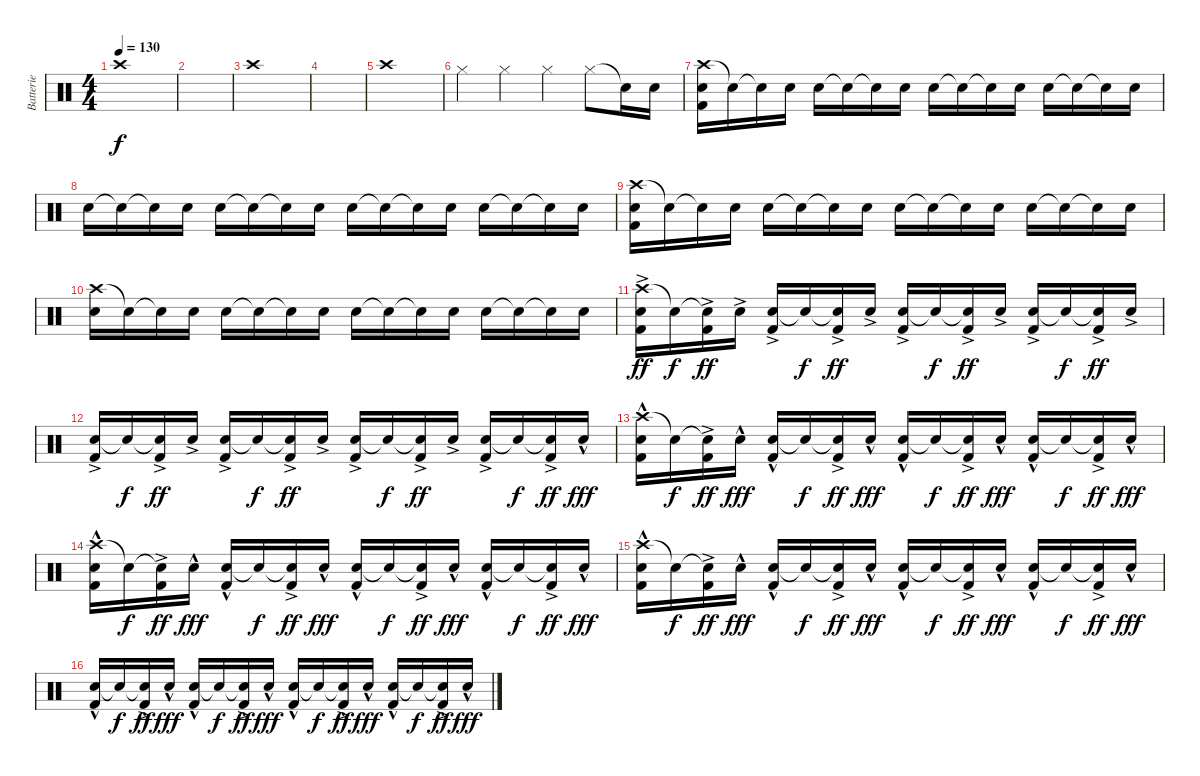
\track ("Batterie" "Batterie") {instrument percussion}
\staff {score}
\articulation defaults
\ts (4 4)
\tempo 130
\clef neutral
\ks c "Crash high (hit)".1{dy f}
|
|
"Crash high (hit)".1 |
|
"Crash high (hit)".1 |
"Hi-Hat (closed)".4 "Hi-Hat (closed)".4 "Hi-Hat (closed)".4 "Hi-Hat (closed)".8 "Snare (hit)"{t}.16 "Electric Snare (hit)".16 |
("Crash high (hit)" "Electric Snare (hit)" "Kick (hit) 2").16 "Snare (hit)"{t}.16 "Electric Snare (hit)"{t}.16 "Electric Snare (hit)".16 "Electric Snare (hit)".16 "Electric Snare (hit)"{t}.16 "Snare (hit)"{t}.16 "Electric Snare (hit)".16 "Electric Snare (hit)".16 "Snare (hit)"{t}.16 "Electric Snare (hit)"{t}.16 "Electric Snare (hit)".16 "Electric Snare (hit)".16 "Electric Snare (hit)"{t}.16 "Snare (hit)"{t}.16 "Electric Snare (hit)".16 |
"Electric Snare (hit)".16 "Snare (hit)"{t}.16 "Electric Snare (hit)"{t}.16 "Electric Snare (hit)".16 "Electric Snare (hit)".16 "Electric Snare (hit)"{t}.16 "Snare (hit)"{t}.16 "Electric Snare (hit)".16 "Electric Snare (hit)".16 "Snare (hit)"{t}.16 "Electric Snare (hit)"{t}.16 "Electric Snare (hit)".16 "Electric Snare (hit)".16 "Electric Snare (hit)"{t}.16 "Snare (hit)"{t}.16 "Electric Snare (hit)".16 |
("Crash high (hit)" "Electric Snare (hit)" "Kick (hit) 2").16 "Snare (hit)"{t}.16 "Electric Snare (hit)"{t}.16 "Electric Snare (hit)".16 "Electric Snare (hit)".16 "Electric Snare (hit)"{t}.16 "Snare (hit)"{t}.16 "Electric Snare (hit)".16 "Electric Snare (hit)".16 "Snare (hit)"{t}.16 "Electric Snare (hit)"{t}.16 "Electric Snare (hit)".16 "Electric Snare (hit)".16 "Electric Snare (hit)"{t}.16 "Snare (hit)"{t}.16 "Electric Snare (hit)".16 |
("Crash high (hit)" "Electric Snare (hit)").16 "Snare (hit)"{t}.16 "Electric Snare (hit)"{t}.16 "Electric Snare (hit)".16 "Electric Snare (hit)".16 "Electric Snare (hit)"{t}.16 "Snare (hit)"{t}.16 "Electric Snare (hit)".16 "Electric Snare (hit)".16 "Snare (hit)"{t}.16 "Electric Snare (hit)"{t}.16 "Electric Snare (hit)".16 "Electric Snare (hit)".16 "Electric Snare (hit)"{t}.16 "Snare (hit)"{t}.16 "Electric Snare (hit)".16 |
("Crash high (hit)"{ac} "Electric Snare (hit)"{ac} "Kick (hit) 2"{ac}).16{dy ff} "Snare (hit)"{t}.16{dy f} ("Electric Snare (hit)"{t} "Kick (hit) 2"{ac}).16{dy ff} "Electric Snare (hit)"{ac}.16 ("Electric Snare (hit)"{ac} "Kick (hit) 2"{ac}).16 "Electric Snare (hit)"{t}.16{dy f} ("Snare (hit)"{t} "Kick (hit) 2"{ac}).16{dy ff} "Electric Snare (hit)"{ac}.16 ("Electric Snare (hit)"{ac} "Kick (hit) 2"{ac}).16 "Snare (hit)"{t}.16{dy f} ("Electric Snare (hit)"{t} "Kick (hit) 2"{ac}).16{dy ff} "Electric Snare (hit)"{ac}.16 ("Electric Snare (hit)"{ac} "Kick (hit) 2"{ac}).16 "Electric Snare (hit)"{t}.16{dy f} ("Snare (hit)"{t} "Kick (hit) 2"{ac}).16{dy ff} "Electric Snare (hit)"{ac}.16 |
("Electric Snare (hit)"{ac} "Kick (hit) 2"{ac}).16 "Snare (hit)"{t}.16{dy f} ("Electric Snare (hit)"{t} "Kick (hit) 2"{ac}).16{dy ff} "Electric Snare (hit)"{ac}.16 ("Electric Snare (hit)"{ac} "Kick (hit) 2"{ac}).16 "Electric Snare (hit)"{t}.16{dy f} ("Snare (hit)"{t} "Kick (hit) 2"{ac}).16{dy ff} "Electric Snare (hit)"{ac}.16 ("Electric Snare (hit)"{ac} "Kick (hit) 2"{ac}).16 "Snare (hit)"{t}.16{dy f} ("Electric Snare (hit)"{t} "Kick (hit) 2"{ac}).16{dy ff} "Electric Snare (hit)"{ac}.16 ("Electric Snare (hit)"{ac} "Kick (hit) 2"{ac}).16 "Electric Snare (hit)"{t}.16{dy f} ("Snare (hit)"{t} "Kick (hit) 2"{ac}).16{dy ff} "Electric Snare (hit)"{hac}.16{dy fff} |
("Crash high (hit)"{hac} "Electric Snare (hit)"{hac} "Kick (hit) 2"{hac}).16 "Snare (hit)"{t}.16{dy f} ("Electric Snare (hit)"{t} "Kick (hit) 2"{ac}).16{dy ff} "Electric Snare (hit)"{hac}.16{dy fff} ("Electric Snare (hit)"{hac} "Kick (hit) 2"{hac}).16 "Electric Snare (hit)"{t}.16{dy f} ("Snare (hit)"{t} "Kick (hit) 2"{ac}).16{dy ff} "Electric Snare (hit)"{hac}.16{dy fff} ("Electric Snare (hit)"{hac} "Kick (hit) 2"{hac}).16 "Snare (hit)"{t}.16{dy f} ("Electric Snare (hit)"{t} "Kick (hit) 2"{ac}).16{dy ff} "Electric Snare (hit)"{hac}.16{dy fff} ("Electric Snare (hit)"{hac} "Kick (hit) 2"{hac}).16 "Electric Snare (hit)"{t}.16{dy f} ("Snare (hit)"{t} "Kick (hit) 2"{ac}).16{dy ff} "Electric Snare (hit)"{hac}.16{dy fff} |
("Crash high (hit)"{hac} "Electric Snare (hit)"{hac} "Kick (hit) 2"{hac}).16 "Snare (hit)"{t}.16{dy f} ("Electric Snare (hit)"{t} "Kick (hit) 2"{ac}).16{dy ff} "Electric Snare (hit)"{hac}.16{dy fff} ("Electric Snare (hit)"{hac} "Kick (hit) 2"{hac}).16 "Electric Snare (hit)"{t}.16{dy f} ("Snare (hit)"{t} "Kick (hit) 2"{ac}).16{dy ff} "Electric Snare (hit)"{hac}.16{dy fff} ("Electric Snare (hit)"{hac} "Kick (hit) 2"{hac}).16 "Snare (hit)"{t}.16{dy f} ("Electric Snare (hit)"{t} "Kick (hit) 2"{ac}).16{dy ff} "Electric Snare (hit)"{hac}.16{dy fff} ("Electric Snare (hit)"{hac} "Kick (hit) 2"{hac}).16 "Electric Snare (hit)"{t}.16{dy f} ("Snare (hit)"{t} "Kick (hit) 2"{ac}).16{dy ff} "Electric Snare (hit)"{hac}.16{dy fff} |
("Crash high (hit)"{hac} "Electric Snare (hit)"{hac} "Kick (hit) 2"{hac}).16 "Snare (hit)"{t}.16{dy f} ("Electric Snare (hit)"{t} "Kick (hit) 2"{ac}).16{dy ff} "Electric Snare (hit)"{hac}.16{dy fff} ("Electric Snare (hit)"{hac} "Kick (hit) 2"{hac}).16 "Electric Snare (hit)"{t}.16{dy f} ("Snare (hit)"{t} "Kick (hit) 2"{ac}).16{dy ff} "Electric Snare (hit)"{hac}.16{dy fff} ("Electric Snare (hit)"{hac} "Kick (hit) 2"{hac}).16 "Snare (hit)"{t}.16{dy f} ("Electric Snare (hit)"{t} "Kick (hit) 2"{ac}).16{dy ff} "Electric Snare (hit)"{hac}.16{dy fff} ("Electric Snare (hit)"{hac} "Kick (hit) 2"{hac}).16 "Electric Snare (hit)"{t}.16{dy f} ("Snare (hit)"{t} "Kick (hit) 2"{ac}).16{dy ff} "Electric Snare (hit)"{hac}.16{dy fff} |
("Electric Snare (hit)"{hac} "Kick (hit) 2"{hac}).16 "Snare (hit)"{t}.16{dy f} ("Electric Snare (hit)"{t} "Kick (hit) 2"{ac}).16{dy ff} "Electric Snare (hit)"{hac}.16{dy fff} ("Electric Snare (hit)"{hac} "Kick (hit) 2"{hac}).16 "Electric Snare (hit)"{t}.16{dy f} ("Snare (hit)"{t} "Kick (hit) 2"{ac}).16{dy ff} "Electric Snare (hit)"{hac}.16{dy fff} ("Electric Snare (hit)"{hac} "Kick (hit) 2"{hac}).16 "Snare (hit)"{t}.16{dy f} ("Electric Snare (hit)"{t} "Kick (hit) 2"{ac}).16{dy ff} "Electric Snare (hit)"{hac}.16{dy fff} ("Electric Snare (hit)"{hac} "Kick (hit) 2"{hac}).16 "Electric Snare (hit)"{t}.16{dy f} ("Snare (hit)"{t} "Kick (hit) 2"{ac}).16{dy ff} "Electric Snare (hit)"{hac}.16{dy fff}
